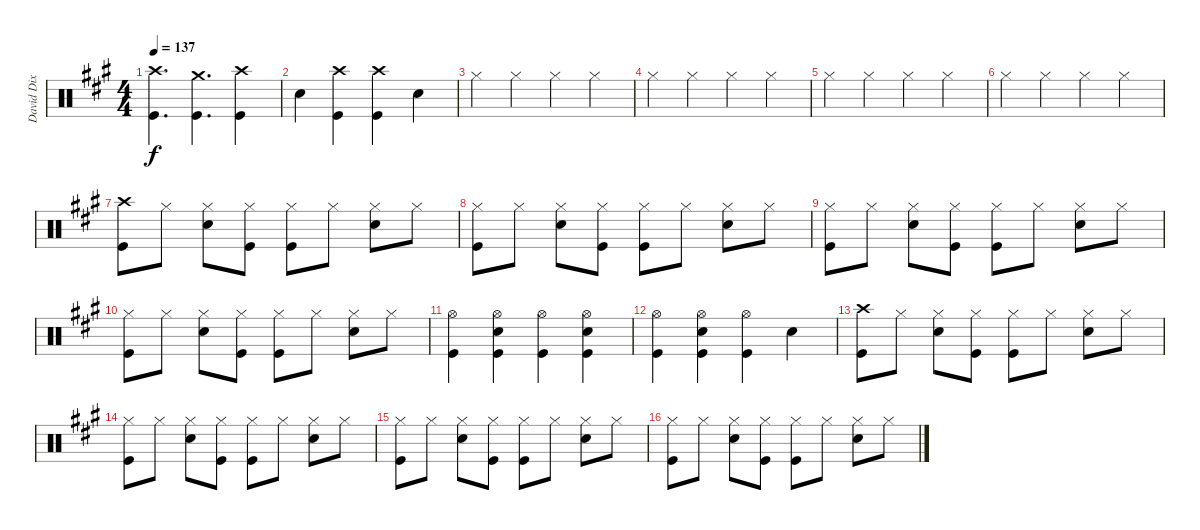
\track ("David Dix Drums" "David Dix ") {instrument percussion}
\staff {score}
\articulation defaults
\ts (4 4)
\tempo 137
\clef neutral
\ks a
("Crash high (hit)" "Kick (hit)").4{d dy f} ("Crash medium (hit)" "Kick (hit)").4{d} ("Crash high (hit)" "Kick (hit)").4 |
"Snare (hit) 2".4 ("Crash high (hit)" "Kick (hit)").4 ("Crash high (hit)" "Kick (hit)").4 "Snare (hit) 2".4 |
"Hi-Hat (closed)".4 "Hi-Hat (closed)".4 "Hi-Hat (closed)".4 "Hi-Hat (closed)".4 |
"Hi-Hat (closed)".4 "Hi-Hat (closed)".4 "Hi-Hat (closed)".4 "Hi-Hat (closed)".4 |
"Hi-Hat (closed)".4 "Hi-Hat (closed)".4 "Hi-Hat (closed)".4 "Hi-Hat (closed)".4 |
"Hi-Hat (closed)".4 "Hi-Hat (closed)".4 "Hi-Hat (closed)".4 "Hi-Hat (closed)".4 |
("Crash high (hit)" "Kick (hit)").8 "Hi-Hat (closed)".8 ("Hi-Hat (closed)" "Snare (hit) 2").8 ("Hi-Hat (closed)" "Kick (hit)").8 ("Hi-Hat (closed)" "Kick (hit)").8 "Hi-Hat (closed)".8 ("Hi-Hat (closed)" "Snare (hit) 2").8 "Hi-Hat (closed)".8 |
("Hi-Hat (closed)" "Kick (hit)").8 "Hi-Hat (closed)".8 ("Hi-Hat (closed)" "Snare (hit) 2").8 ("Hi-Hat (closed)" "Kick (hit)").8 ("Hi-Hat (closed)" "Kick (hit)").8 "Hi-Hat (closed)".8 ("Hi-Hat (closed)" "Snare (hit) 2").8 "Hi-Hat (closed)".8 |
("Hi-Hat (closed)" "Kick (hit)").8 "Hi-Hat (closed)".8 ("Hi-Hat (closed)" "Snare (hit) 2").8 ("Hi-Hat (closed)" "Kick (hit)").8 ("Hi-Hat (closed)" "Kick (hit)").8 "Hi-Hat (closed)".8 ("Hi-Hat (closed)" "Snare (hit) 2").8 "Hi-Hat (closed)".8 |
("Hi-Hat (closed)" "Kick (hit)").8 "Hi-Hat (closed)".8 ("Hi-Hat (closed)" "Snare (hit) 2").8 ("Hi-Hat (closed)" "Kick (hit)").8 ("Hi-Hat (closed)" "Kick (hit)").8 "Hi-Hat (closed)".8 ("Hi-Hat (closed)" "Snare (hit) 2").8 "Hi-Hat (closed)".8 |
("Hi-Hat (open)" "Kick (hit)").4 ("Hi-Hat (open)" "Snare (hit) 2" "Kick (hit)").4 ("Hi-Hat (open)" "Kick (hit)").4 ("Hi-Hat (open)" "Snare (hit) 2" "Kick (hit)").4 |
("Hi-Hat (open)" "Kick (hit)").4 ("Hi-Hat (open)" "Snare (hit) 2" "Kick (hit)").4 ("Hi-Hat (open)" "Kick (hit)").4 "Snare (hit) 2".4 |
("Crash high (hit)" "Kick (hit)").8 "Hi-Hat (closed)".8 ("Hi-Hat (closed)" "Snare (hit) 2").8 ("Hi-Hat (closed)" "Kick (hit)").8 ("Hi-Hat (closed)" "Kick (hit)").8 "Hi-Hat (closed)".8 ("Hi-Hat (closed)" "Snare (hit) 2").8 "Hi-Hat (closed)".8 |
("Hi-Hat (closed)" "Kick (hit)").8 "Hi-Hat (closed)".8 ("Hi-Hat (closed)" "Snare (hit) 2").8 ("Hi-Hat (closed)" "Kick (hit)").8 ("Hi-Hat (closed)" "Kick (hit)").8 "Hi-Hat (closed)".8 ("Hi-Hat (closed)" "Snare (hit) 2").8 "Hi-Hat (closed)".8 |
("Hi-Hat (closed)" "Kick (hit)").8 "Hi-Hat (closed)".8 ("Hi-Hat (closed)" "Snare (hit) 2").8 ("Hi-Hat (closed)" "Kick (hit)").8 ("Hi-Hat (closed)" "Kick (hit)").8 "Hi-Hat (closed)".8 ("Hi-Hat (closed)" "Snare (hit) 2").8 "Hi-Hat (closed)".8 |
("Hi-Hat (closed)" "Kick (hit)").8 "Hi-Hat (closed)".8 ("Hi-Hat (closed)" "Snare (hit) 2").8 ("Hi-Hat (closed)" "Kick (hit)").8 ("Hi-Hat (closed)" "Kick (hit)").8 "Hi-Hat (closed)".8 ("Hi-Hat (closed)" "Snare (hit) 2").8 "Hi-Hat (closed)".8
